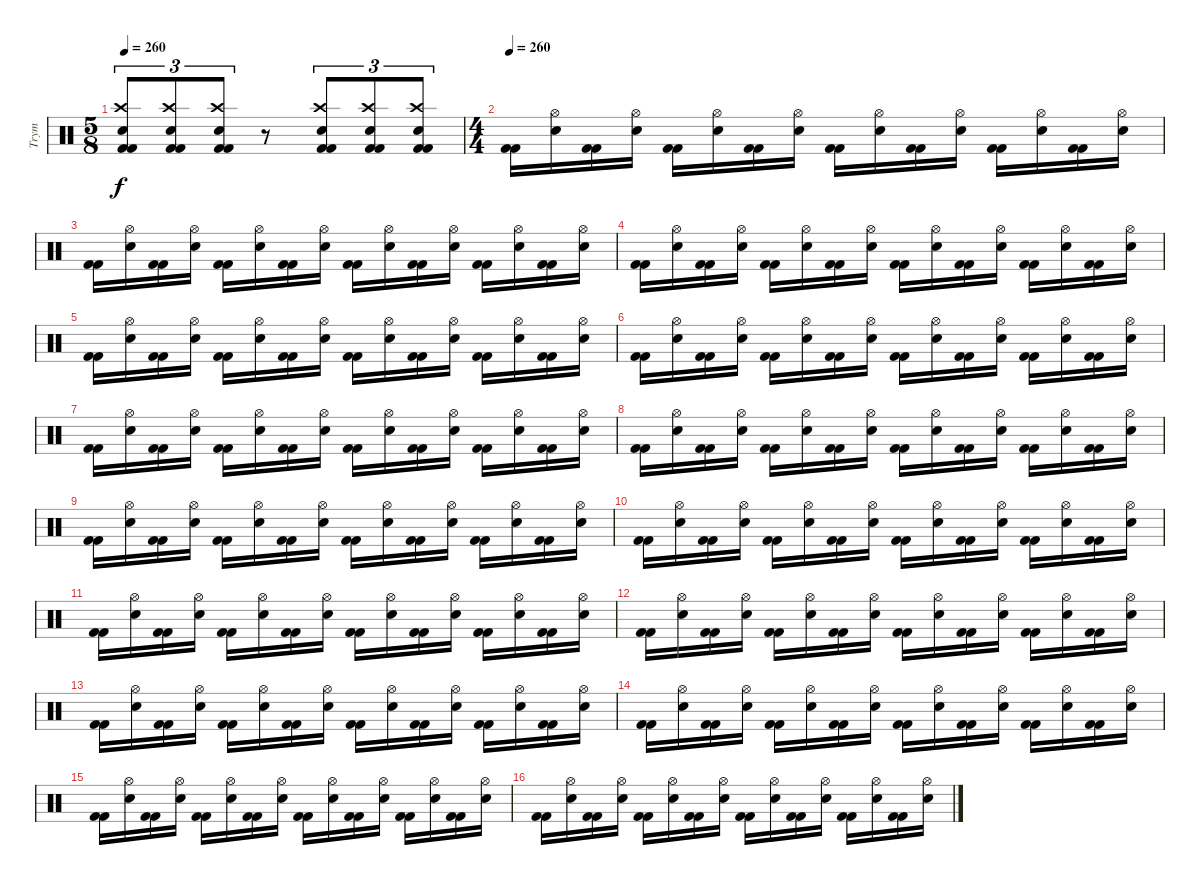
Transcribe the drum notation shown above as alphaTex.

\track ("Trym" "Trym") {instrument percussion}
\staff {score}
\articulation defaults
\ts (5 8)
\tempo 260
\tempo 200
\tempo 260
\clef neutral
\ks c
("Kick (hit) 2" "Crash high (hit)" "Snare (hit) 2" "Kick (hit) 2").8{tu (3 2) dy f} ("Kick (hit) 2" "Crash high (hit)" "Snare (hit) 2" "Kick (hit) 2").8{tu (3 2)} ("Kick (hit) 2" "Crash high (hit)" "Snare (hit) 2" "Kick (hit) 2").8{tu (3 2)} r.8 ("Kick (hit) 2" "Crash high (hit)" "Snare (hit) 2" "Kick (hit) 2").8{tu (3 2)} ("Kick (hit) 2" "Crash high (hit)" "Snare (hit) 2" "Kick (hit) 2").8{tu (3 2)} ("Kick (hit) 2" "Crash high (hit)" "Snare (hit) 2" "Kick (hit) 2").8{tu (3 2)} |
\ts (4 4)
\tempo 260
("Kick (hit) 2" "Kick (hit) 2").16 ("Hi-Hat (open)" "Snare (hit) 2").16 ("Kick (hit) 2" "Kick (hit) 2").16 ("Hi-Hat (open)" "Snare (hit) 2").16 ("Kick (hit) 2" "Kick (hit) 2").16 ("Hi-Hat (open)" "Snare (hit) 2").16 ("Kick (hit) 2" "Kick (hit) 2").16 ("Hi-Hat (open)" "Snare (hit) 2").16 ("Kick (hit) 2" "Kick (hit) 2").16 ("Hi-Hat (open)" "Snare (hit) 2").16 ("Kick (hit) 2" "Kick (hit) 2").16 ("Hi-Hat (open)" "Snare (hit) 2").16 ("Kick (hit) 2" "Kick (hit) 2").16 ("Hi-Hat (open)" "Snare (hit) 2").16 ("Kick (hit) 2" "Kick (hit) 2").16 ("Hi-Hat (open)" "Snare (hit) 2").16 |
("Kick (hit) 2" "Kick (hit) 2").16 ("Hi-Hat (open)" "Snare (hit) 2").16 ("Kick (hit) 2" "Kick (hit) 2").16 ("Hi-Hat (open)" "Snare (hit) 2").16 ("Kick (hit) 2" "Kick (hit) 2").16 ("Hi-Hat (open)" "Snare (hit) 2").16 ("Kick (hit) 2" "Kick (hit) 2").16 ("Hi-Hat (open)" "Snare (hit) 2").16 ("Kick (hit) 2" "Kick (hit) 2").16 ("Hi-Hat (open)" "Snare (hit) 2").16 ("Kick (hit) 2" "Kick (hit) 2").16 ("Hi-Hat (open)" "Snare (hit) 2").16 ("Kick (hit) 2" "Kick (hit) 2").16 ("Hi-Hat (open)" "Snare (hit) 2").16 ("Kick (hit) 2" "Kick (hit) 2").16 ("Hi-Hat (open)" "Snare (hit) 2").16 |
("Kick (hit) 2" "Kick (hit) 2").16 ("Hi-Hat (open)" "Snare (hit) 2").16 ("Kick (hit) 2" "Kick (hit) 2").16 ("Hi-Hat (open)" "Snare (hit) 2").16 ("Kick (hit) 2" "Kick (hit) 2").16 ("Hi-Hat (open)" "Snare (hit) 2").16 ("Kick (hit) 2" "Kick (hit) 2").16 ("Hi-Hat (open)" "Snare (hit) 2").16 ("Kick (hit) 2" "Kick (hit) 2").16 ("Hi-Hat (open)" "Snare (hit) 2").16 ("Kick (hit) 2" "Kick (hit) 2").16 ("Hi-Hat (open)" "Snare (hit) 2").16 ("Kick (hit) 2" "Kick (hit) 2").16 ("Hi-Hat (open)" "Snare (hit) 2").16 ("Kick (hit) 2" "Kick (hit) 2").16 ("Hi-Hat (open)" "Snare (hit) 2").16 |
("Kick (hit) 2" "Kick (hit) 2").16 ("Hi-Hat (open)" "Snare (hit) 2").16 ("Kick (hit) 2" "Kick (hit) 2").16 ("Hi-Hat (open)" "Snare (hit) 2").16 ("Kick (hit) 2" "Kick (hit) 2").16 ("Hi-Hat (open)" "Snare (hit) 2").16 ("Kick (hit) 2" "Kick (hit) 2").16 ("Hi-Hat (open)" "Snare (hit) 2").16 ("Kick (hit) 2" "Kick (hit) 2").16 ("Hi-Hat (open)" "Snare (hit) 2").16 ("Kick (hit) 2" "Kick (hit) 2").16 ("Hi-Hat (open)" "Snare (hit) 2").16 ("Kick (hit) 2" "Kick (hit) 2").16 ("Hi-Hat (open)" "Snare (hit) 2").16 ("Kick (hit) 2" "Kick (hit) 2").16 ("Hi-Hat (open)" "Snare (hit) 2").16 |
("Kick (hit) 2" "Kick (hit) 2").16 ("Hi-Hat (open)" "Snare (hit) 2").16 ("Kick (hit) 2" "Kick (hit) 2").16 ("Hi-Hat (open)" "Snare (hit) 2").16 ("Kick (hit) 2" "Kick (hit) 2").16 ("Hi-Hat (open)" "Snare (hit) 2").16 ("Kick (hit) 2" "Kick (hit) 2").16 ("Hi-Hat (open)" "Snare (hit) 2").16 ("Kick (hit) 2" "Kick (hit) 2").16 ("Hi-Hat (open)" "Snare (hit) 2").16 ("Kick (hit) 2" "Kick (hit) 2").16 ("Hi-Hat (open)" "Snare (hit) 2").16 ("Kick (hit) 2" "Kick (hit) 2").16 ("Hi-Hat (open)" "Snare (hit) 2").16 ("Kick (hit) 2" "Kick (hit) 2").16 ("Hi-Hat (open)" "Snare (hit) 2").16 |
("Kick (hit) 2" "Kick (hit) 2").16 ("Hi-Hat (open)" "Snare (hit) 2").16 ("Kick (hit) 2" "Kick (hit) 2").16 ("Hi-Hat (open)" "Snare (hit) 2").16 ("Kick (hit) 2" "Kick (hit) 2").16 ("Hi-Hat (open)" "Snare (hit) 2").16 ("Kick (hit) 2" "Kick (hit) 2").16 ("Hi-Hat (open)" "Snare (hit) 2").16 ("Kick (hit) 2" "Kick (hit) 2").16 ("Hi-Hat (open)" "Snare (hit) 2").16 ("Kick (hit) 2" "Kick (hit) 2").16 ("Hi-Hat (open)" "Snare (hit) 2").16 ("Kick (hit) 2" "Kick (hit) 2").16 ("Hi-Hat (open)" "Snare (hit) 2").16 ("Kick (hit) 2" "Kick (hit) 2").16 ("Hi-Hat (open)" "Snare (hit) 2").16 |
("Kick (hit) 2" "Kick (hit) 2").16 ("Hi-Hat (open)" "Snare (hit) 2").16 ("Kick (hit) 2" "Kick (hit) 2").16 ("Hi-Hat (open)" "Snare (hit) 2").16 ("Kick (hit) 2" "Kick (hit) 2").16 ("Hi-Hat (open)" "Snare (hit) 2").16 ("Kick (hit) 2" "Kick (hit) 2").16 ("Hi-Hat (open)" "Snare (hit) 2").16 ("Kick (hit) 2" "Kick (hit) 2").16 ("Hi-Hat (open)" "Snare (hit) 2").16 ("Kick (hit) 2" "Kick (hit) 2").16 ("Hi-Hat (open)" "Snare (hit) 2").16 ("Kick (hit) 2" "Kick (hit) 2").16 ("Hi-Hat (open)" "Snare (hit) 2").16 ("Kick (hit) 2" "Kick (hit) 2").16 ("Hi-Hat (open)" "Snare (hit) 2").16 |
("Kick (hit) 2" "Kick (hit) 2").16 ("Hi-Hat (open)" "Snare (hit) 2").16 ("Kick (hit) 2" "Kick (hit) 2").16 ("Hi-Hat (open)" "Snare (hit) 2").16 ("Kick (hit) 2" "Kick (hit) 2").16 ("Hi-Hat (open)" "Snare (hit) 2").16 ("Kick (hit) 2" "Kick (hit) 2").16 ("Hi-Hat (open)" "Snare (hit) 2").16 ("Kick (hit) 2" "Kick (hit) 2").16 ("Hi-Hat (open)" "Snare (hit) 2").16 ("Kick (hit) 2" "Kick (hit) 2").16 ("Hi-Hat (open)" "Snare (hit) 2").16 ("Kick (hit) 2" "Kick (hit) 2").16 ("Hi-Hat (open)" "Snare (hit) 2").16 ("Kick (hit) 2" "Kick (hit) 2").16 ("Hi-Hat (open)" "Snare (hit) 2").16 |
("Kick (hit) 2" "Kick (hit) 2").16 ("Hi-Hat (open)" "Snare (hit) 2").16 ("Kick (hit) 2" "Kick (hit) 2").16 ("Hi-Hat (open)" "Snare (hit) 2").16 ("Kick (hit) 2" "Kick (hit) 2").16 ("Hi-Hat (open)" "Snare (hit) 2").16 ("Kick (hit) 2" "Kick (hit) 2").16 ("Hi-Hat (open)" "Snare (hit) 2").16 ("Kick (hit) 2" "Kick (hit) 2").16 ("Hi-Hat (open)" "Snare (hit) 2").16 ("Kick (hit) 2" "Kick (hit) 2").16 ("Hi-Hat (open)" "Snare (hit) 2").16 ("Kick (hit) 2" "Kick (hit) 2").16 ("Hi-Hat (open)" "Snare (hit) 2").16 ("Kick (hit) 2" "Kick (hit) 2").16 ("Hi-Hat (open)" "Snare (hit) 2").16 |
("Kick (hit) 2" "Kick (hit) 2").16 ("Hi-Hat (open)" "Snare (hit) 2").16 ("Kick (hit) 2" "Kick (hit) 2").16 ("Hi-Hat (open)" "Snare (hit) 2").16 ("Kick (hit) 2" "Kick (hit) 2").16 ("Hi-Hat (open)" "Snare (hit) 2").16 ("Kick (hit) 2" "Kick (hit) 2").16 ("Hi-Hat (open)" "Snare (hit) 2").16 ("Kick (hit) 2" "Kick (hit) 2").16 ("Hi-Hat (open)" "Snare (hit) 2").16 ("Kick (hit) 2" "Kick (hit) 2").16 ("Hi-Hat (open)" "Snare (hit) 2").16 ("Kick (hit) 2" "Kick (hit) 2").16 ("Hi-Hat (open)" "Snare (hit) 2").16 ("Kick (hit) 2" "Kick (hit) 2").16 ("Hi-Hat (open)" "Snare (hit) 2").16 |
("Kick (hit) 2" "Kick (hit) 2").16 ("Hi-Hat (open)" "Snare (hit) 2").16 ("Kick (hit) 2" "Kick (hit) 2").16 ("Hi-Hat (open)" "Snare (hit) 2").16 ("Kick (hit) 2" "Kick (hit) 2").16 ("Hi-Hat (open)" "Snare (hit) 2").16 ("Kick (hit) 2" "Kick (hit) 2").16 ("Hi-Hat (open)" "Snare (hit) 2").16 ("Kick (hit) 2" "Kick (hit) 2").16 ("Hi-Hat (open)" "Snare (hit) 2").16 ("Kick (hit) 2" "Kick (hit) 2").16 ("Hi-Hat (open)" "Snare (hit) 2").16 ("Kick (hit) 2" "Kick (hit) 2").16 ("Hi-Hat (open)" "Snare (hit) 2").16 ("Kick (hit) 2" "Kick (hit) 2").16 ("Hi-Hat (open)" "Snare (hit) 2").16 |
("Kick (hit) 2" "Kick (hit) 2").16 ("Hi-Hat (open)" "Snare (hit) 2").16 ("Kick (hit) 2" "Kick (hit) 2").16 ("Hi-Hat (open)" "Snare (hit) 2").16 ("Kick (hit) 2" "Kick (hit) 2").16 ("Hi-Hat (open)" "Snare (hit) 2").16 ("Kick (hit) 2" "Kick (hit) 2").16 ("Hi-Hat (open)" "Snare (hit) 2").16 ("Kick (hit) 2" "Kick (hit) 2").16 ("Hi-Hat (open)" "Snare (hit) 2").16 ("Kick (hit) 2" "Kick (hit) 2").16 ("Hi-Hat (open)" "Snare (hit) 2").16 ("Kick (hit) 2" "Kick (hit) 2").16 ("Hi-Hat (open)" "Snare (hit) 2").16 ("Kick (hit) 2" "Kick (hit) 2").16 ("Hi-Hat (open)" "Snare (hit) 2").16 |
("Kick (hit) 2" "Kick (hit) 2").16 ("Hi-Hat (open)" "Snare (hit) 2").16 ("Kick (hit) 2" "Kick (hit) 2").16 ("Hi-Hat (open)" "Snare (hit) 2").16 ("Kick (hit) 2" "Kick (hit) 2").16 ("Hi-Hat (open)" "Snare (hit) 2").16 ("Kick (hit) 2" "Kick (hit) 2").16 ("Hi-Hat (open)" "Snare (hit) 2").16 ("Kick (hit) 2" "Kick (hit) 2").16 ("Hi-Hat (open)" "Snare (hit) 2").16 ("Kick (hit) 2" "Kick (hit) 2").16 ("Hi-Hat (open)" "Snare (hit) 2").16 ("Kick (hit) 2" "Kick (hit) 2").16 ("Hi-Hat (open)" "Snare (hit) 2").16 ("Kick (hit) 2" "Kick (hit) 2").16 ("Hi-Hat (open)" "Snare (hit) 2").16 |
("Kick (hit) 2" "Kick (hit) 2").16 ("Hi-Hat (open)" "Snare (hit) 2").16 ("Kick (hit) 2" "Kick (hit) 2").16 ("Hi-Hat (open)" "Snare (hit) 2").16 ("Kick (hit) 2" "Kick (hit) 2").16 ("Hi-Hat (open)" "Snare (hit) 2").16 ("Kick (hit) 2" "Kick (hit) 2").16 ("Hi-Hat (open)" "Snare (hit) 2").16 ("Kick (hit) 2" "Kick (hit) 2").16 ("Hi-Hat (open)" "Snare (hit) 2").16 ("Kick (hit) 2" "Kick (hit) 2").16 ("Hi-Hat (open)" "Snare (hit) 2").16 ("Kick (hit) 2" "Kick (hit) 2").16 ("Hi-Hat (open)" "Snare (hit) 2").16 ("Kick (hit) 2" "Kick (hit) 2").16 ("Hi-Hat (open)" "Snare (hit) 2").16 |
("Kick (hit) 2" "Kick (hit) 2").16 ("Hi-Hat (open)" "Snare (hit) 2").16 ("Kick (hit) 2" "Kick (hit) 2").16 ("Hi-Hat (open)" "Snare (hit) 2").16 ("Kick (hit) 2" "Kick (hit) 2").16 ("Hi-Hat (open)" "Snare (hit) 2").16 ("Kick (hit) 2" "Kick (hit) 2").16 ("Hi-Hat (open)" "Snare (hit) 2").16 ("Kick (hit) 2" "Kick (hit) 2").16 ("Hi-Hat (open)" "Snare (hit) 2").16 ("Kick (hit) 2" "Kick (hit) 2").16 ("Hi-Hat (open)" "Snare (hit) 2").16 ("Kick (hit) 2" "Kick (hit) 2").16 ("Hi-Hat (open)" "Snare (hit) 2").16 ("Kick (hit) 2" "Kick (hit) 2").16 ("Hi-Hat (open)" "Snare (hit) 2").16
